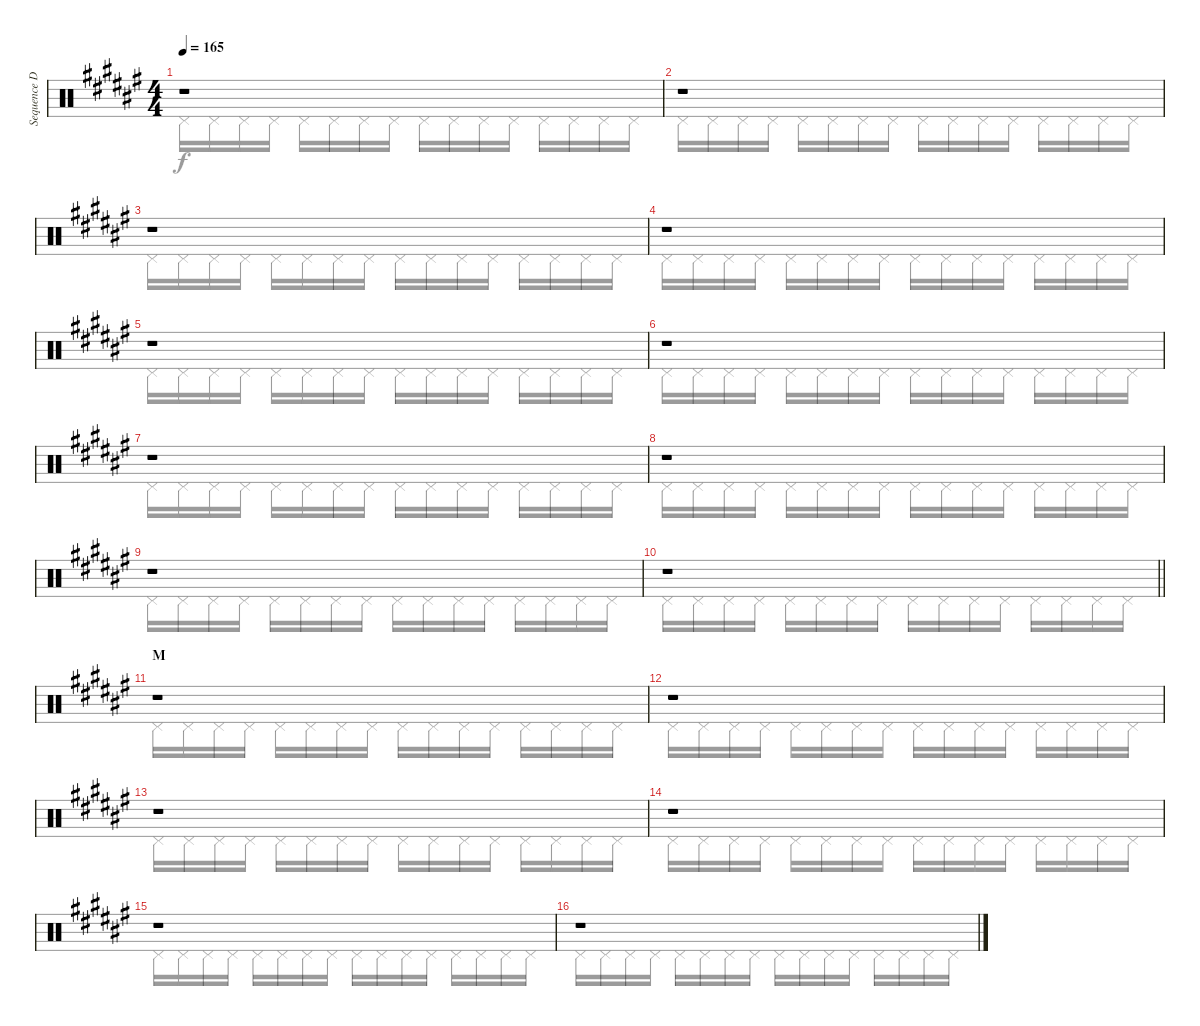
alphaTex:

\track ("Sequence Drums" "Sequence D") {instrument percussion}
\staff {score}
\articulation defaults
\voice
\ts (4 4)
\tempo 165
\clef neutral
\ks f#
r.1{dy p} |
r.1 |
r.1 |
r.1 |
r.1 |
r.1 |
r.1 |
r.1 |
r.1 |
\barLineRight lightlight
r.1 |
\section ("" "M")
r.1 |
r.1 |
r.1 |
r.1 |
r.1 |
r.1
\voice
\clef neutral
\ottava regular
\simile none
\ks f# "Pedal Hi-Hat (hit)".16{dy f} "Pedal Hi-Hat (hit)".16 "Pedal Hi-Hat (hit)".16 "Pedal Hi-Hat (hit)".16 "Pedal Hi-Hat (hit)".16 "Pedal Hi-Hat (hit)".16 "Pedal Hi-Hat (hit)".16 "Pedal Hi-Hat (hit)".16 "Pedal Hi-Hat (hit)".16 "Pedal Hi-Hat (hit)".16 "Pedal Hi-Hat (hit)".16 "Pedal Hi-Hat (hit)".16 "Pedal Hi-Hat (hit)".16 "Pedal Hi-Hat (hit)".16 "Pedal Hi-Hat (hit)".16 "Pedal Hi-Hat (hit)".16
|
"Pedal Hi-Hat (hit)".16 "Pedal Hi-Hat (hit)".16 "Pedal Hi-Hat (hit)".16 "Pedal Hi-Hat (hit)".16 "Pedal Hi-Hat (hit)".16 "Pedal Hi-Hat (hit)".16 "Pedal Hi-Hat (hit)".16 "Pedal Hi-Hat (hit)".16 "Pedal Hi-Hat (hit)".16 "Pedal Hi-Hat (hit)".16 "Pedal Hi-Hat (hit)".16 "Pedal Hi-Hat (hit)".16 "Pedal Hi-Hat (hit)".16 "Pedal Hi-Hat (hit)".16 "Pedal Hi-Hat (hit)".16 "Pedal Hi-Hat (hit)".16 |
"Pedal Hi-Hat (hit)".16 "Pedal Hi-Hat (hit)".16 "Pedal Hi-Hat (hit)".16 "Pedal Hi-Hat (hit)".16 "Pedal Hi-Hat (hit)".16 "Pedal Hi-Hat (hit)".16 "Pedal Hi-Hat (hit)".16 "Pedal Hi-Hat (hit)".16 "Pedal Hi-Hat (hit)".16 "Pedal Hi-Hat (hit)".16 "Pedal Hi-Hat (hit)".16 "Pedal Hi-Hat (hit)".16 "Pedal Hi-Hat (hit)".16 "Pedal Hi-Hat (hit)".16 "Pedal Hi-Hat (hit)".16 "Pedal Hi-Hat (hit)".16 |
"Pedal Hi-Hat (hit)".16 "Pedal Hi-Hat (hit)".16 "Pedal Hi-Hat (hit)".16 "Pedal Hi-Hat (hit)".16 "Pedal Hi-Hat (hit)".16 "Pedal Hi-Hat (hit)".16 "Pedal Hi-Hat (hit)".16 "Pedal Hi-Hat (hit)".16 "Pedal Hi-Hat (hit)".16 "Pedal Hi-Hat (hit)".16 "Pedal Hi-Hat (hit)".16 "Pedal Hi-Hat (hit)".16 "Pedal Hi-Hat (hit)".16 "Pedal Hi-Hat (hit)".16 "Pedal Hi-Hat (hit)".16 "Pedal Hi-Hat (hit)".16 |
"Pedal Hi-Hat (hit)".16 "Pedal Hi-Hat (hit)".16 "Pedal Hi-Hat (hit)".16 "Pedal Hi-Hat (hit)".16 "Pedal Hi-Hat (hit)".16 "Pedal Hi-Hat (hit)".16 "Pedal Hi-Hat (hit)".16 "Pedal Hi-Hat (hit)".16 "Pedal Hi-Hat (hit)".16 "Pedal Hi-Hat (hit)".16 "Pedal Hi-Hat (hit)".16 "Pedal Hi-Hat (hit)".16 "Pedal Hi-Hat (hit)".16 "Pedal Hi-Hat (hit)".16 "Pedal Hi-Hat (hit)".16 "Pedal Hi-Hat (hit)".16 |
"Pedal Hi-Hat (hit)".16 "Pedal Hi-Hat (hit)".16 "Pedal Hi-Hat (hit)".16 "Pedal Hi-Hat (hit)".16 "Pedal Hi-Hat (hit)".16 "Pedal Hi-Hat (hit)".16 "Pedal Hi-Hat (hit)".16 "Pedal Hi-Hat (hit)".16 "Pedal Hi-Hat (hit)".16 "Pedal Hi-Hat (hit)".16 "Pedal Hi-Hat (hit)".16 "Pedal Hi-Hat (hit)".16 "Pedal Hi-Hat (hit)".16 "Pedal Hi-Hat (hit)".16 "Pedal Hi-Hat (hit)".16 "Pedal Hi-Hat (hit)".16 |
"Pedal Hi-Hat (hit)".16 "Pedal Hi-Hat (hit)".16 "Pedal Hi-Hat (hit)".16 "Pedal Hi-Hat (hit)".16 "Pedal Hi-Hat (hit)".16 "Pedal Hi-Hat (hit)".16 "Pedal Hi-Hat (hit)".16 "Pedal Hi-Hat (hit)".16 "Pedal Hi-Hat (hit)".16 "Pedal Hi-Hat (hit)".16 "Pedal Hi-Hat (hit)".16 "Pedal Hi-Hat (hit)".16 "Pedal Hi-Hat (hit)".16 "Pedal Hi-Hat (hit)".16 "Pedal Hi-Hat (hit)".16 "Pedal Hi-Hat (hit)".16 |
"Pedal Hi-Hat (hit)".16 "Pedal Hi-Hat (hit)".16 "Pedal Hi-Hat (hit)".16 "Pedal Hi-Hat (hit)".16 "Pedal Hi-Hat (hit)".16 "Pedal Hi-Hat (hit)".16 "Pedal Hi-Hat (hit)".16 "Pedal Hi-Hat (hit)".16 "Pedal Hi-Hat (hit)".16 "Pedal Hi-Hat (hit)".16 "Pedal Hi-Hat (hit)".16 "Pedal Hi-Hat (hit)".16 "Pedal Hi-Hat (hit)".16 "Pedal Hi-Hat (hit)".16 "Pedal Hi-Hat (hit)".16 "Pedal Hi-Hat (hit)".16 |
"Pedal Hi-Hat (hit)".16 "Pedal Hi-Hat (hit)".16 "Pedal Hi-Hat (hit)".16 "Pedal Hi-Hat (hit)".16 "Pedal Hi-Hat (hit)".16 "Pedal Hi-Hat (hit)".16 "Pedal Hi-Hat (hit)".16 "Pedal Hi-Hat (hit)".16 "Pedal Hi-Hat (hit)".16 "Pedal Hi-Hat (hit)".16 "Pedal Hi-Hat (hit)".16 "Pedal Hi-Hat (hit)".16 "Pedal Hi-Hat (hit)".16 "Pedal Hi-Hat (hit)".16 "Pedal Hi-Hat (hit)".16 "Pedal Hi-Hat (hit)".16 |
\barLineRight lightlight "Pedal Hi-Hat (hit)".16 "Pedal Hi-Hat (hit)".16 "Pedal Hi-Hat (hit)".16 "Pedal Hi-Hat (hit)".16 "Pedal Hi-Hat (hit)".16 "Pedal Hi-Hat (hit)".16 "Pedal Hi-Hat (hit)".16 "Pedal Hi-Hat (hit)".16 "Pedal Hi-Hat (hit)".16 "Pedal Hi-Hat (hit)".16 "Pedal Hi-Hat (hit)".16 "Pedal Hi-Hat (hit)".16 "Pedal Hi-Hat (hit)".16 "Pedal Hi-Hat (hit)".16 "Pedal Hi-Hat (hit)".16 "Pedal Hi-Hat (hit)".16
|
"Pedal Hi-Hat (hit)".16 "Pedal Hi-Hat (hit)".16 "Pedal Hi-Hat (hit)".16 "Pedal Hi-Hat (hit)".16 "Pedal Hi-Hat (hit)".16 "Pedal Hi-Hat (hit)".16 "Pedal Hi-Hat (hit)".16 "Pedal Hi-Hat (hit)".16 "Pedal Hi-Hat (hit)".16 "Pedal Hi-Hat (hit)".16 "Pedal Hi-Hat (hit)".16 "Pedal Hi-Hat (hit)".16 "Pedal Hi-Hat (hit)".16 "Pedal Hi-Hat (hit)".16 "Pedal Hi-Hat (hit)".16 "Pedal Hi-Hat (hit)".16 |
"Pedal Hi-Hat (hit)".16 "Pedal Hi-Hat (hit)".16 "Pedal Hi-Hat (hit)".16 "Pedal Hi-Hat (hit)".16 "Pedal Hi-Hat (hit)".16 "Pedal Hi-Hat (hit)".16 "Pedal Hi-Hat (hit)".16 "Pedal Hi-Hat (hit)".16 "Pedal Hi-Hat (hit)".16 "Pedal Hi-Hat (hit)".16 "Pedal Hi-Hat (hit)".16 "Pedal Hi-Hat (hit)".16 "Pedal Hi-Hat (hit)".16 "Pedal Hi-Hat (hit)".16 "Pedal Hi-Hat (hit)".16 "Pedal Hi-Hat (hit)".16 |
"Pedal Hi-Hat (hit)".16 "Pedal Hi-Hat (hit)".16 "Pedal Hi-Hat (hit)".16 "Pedal Hi-Hat (hit)".16 "Pedal Hi-Hat (hit)".16 "Pedal Hi-Hat (hit)".16 "Pedal Hi-Hat (hit)".16 "Pedal Hi-Hat (hit)".16 "Pedal Hi-Hat (hit)".16 "Pedal Hi-Hat (hit)".16 "Pedal Hi-Hat (hit)".16 "Pedal Hi-Hat (hit)".16 "Pedal Hi-Hat (hit)".16 "Pedal Hi-Hat (hit)".16 "Pedal Hi-Hat (hit)".16 "Pedal Hi-Hat (hit)".16 |
"Pedal Hi-Hat (hit)".16 "Pedal Hi-Hat (hit)".16 "Pedal Hi-Hat (hit)".16 "Pedal Hi-Hat (hit)".16 "Pedal Hi-Hat (hit)".16 "Pedal Hi-Hat (hit)".16 "Pedal Hi-Hat (hit)".16 "Pedal Hi-Hat (hit)".16 "Pedal Hi-Hat (hit)".16 "Pedal Hi-Hat (hit)".16 "Pedal Hi-Hat (hit)".16 "Pedal Hi-Hat (hit)".16 "Pedal Hi-Hat (hit)".16 "Pedal Hi-Hat (hit)".16 "Pedal Hi-Hat (hit)".16 "Pedal Hi-Hat (hit)".16 |
"Pedal Hi-Hat (hit)".16 "Pedal Hi-Hat (hit)".16 "Pedal Hi-Hat (hit)".16 "Pedal Hi-Hat (hit)".16 "Pedal Hi-Hat (hit)".16 "Pedal Hi-Hat (hit)".16 "Pedal Hi-Hat (hit)".16 "Pedal Hi-Hat (hit)".16 "Pedal Hi-Hat (hit)".16 "Pedal Hi-Hat (hit)".16 "Pedal Hi-Hat (hit)".16 "Pedal Hi-Hat (hit)".16 "Pedal Hi-Hat (hit)".16 "Pedal Hi-Hat (hit)".16 "Pedal Hi-Hat (hit)".16 "Pedal Hi-Hat (hit)".16 |
"Pedal Hi-Hat (hit)".16 "Pedal Hi-Hat (hit)".16 "Pedal Hi-Hat (hit)".16 "Pedal Hi-Hat (hit)".16 "Pedal Hi-Hat (hit)".16 "Pedal Hi-Hat (hit)".16 "Pedal Hi-Hat (hit)".16 "Pedal Hi-Hat (hit)".16 "Pedal Hi-Hat (hit)".16 "Pedal Hi-Hat (hit)".16 "Pedal Hi-Hat (hit)".16 "Pedal Hi-Hat (hit)".16 "Pedal Hi-Hat (hit)".16 "Pedal Hi-Hat (hit)".16 "Pedal Hi-Hat (hit)".16 "Pedal Hi-Hat (hit)".16
